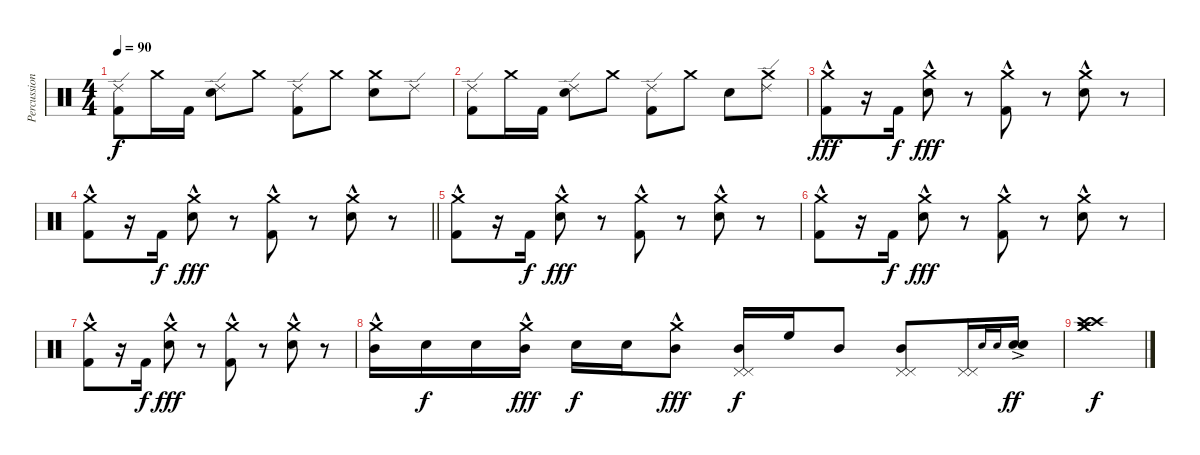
\track ("Percussion" "Percussion") {instrument percussion}
\staff {score}
\articulation defaults
\ts (4 4)
\tempo 90
\clef neutral
\ks c
("Ride (edge) 2" "Kick (hit) 2").8{dy f} "Crash medium (hit)".16 "Kick (hit) 2".16 ("Ride (edge) 2" "Electric Snare (hit)").8 "Crash medium (hit)".8 ("Ride (edge) 2" "Kick (hit) 2").8 "Crash medium (hit)".8 ("Crash medium (hit)" "Electric Snare (hit)").8 "Ride (edge) 2".8 |
("Ride (edge) 2" "Kick (hit) 2").8 "Crash medium (hit)".16 "Kick (hit) 2".16 ("Ride (edge) 2" "Electric Snare (hit)").8 "Crash medium (hit)".8 ("Ride (edge) 2" "Kick (hit) 2").8 "Crash medium (hit)".8 "Electric Snare (hit)".8 ("Ride (edge) 2" "Crash medium (hit)").8 |
("Crash medium (hit)"{hac} "Kick (hit) 2").8{dy fff} r.16 "Kick (hit) 2".16{dy f} ("Crash medium (hit)"{hac} "Electric Snare (hit)").8{dy fff} r.8 ("Crash medium (hit)"{hac} "Kick (hit) 2").8 r.8 ("Crash medium (hit)"{hac} "Electric Snare (hit)").8 r.8 |
\barLineRight lightlight
("Crash medium (hit)"{hac} "Kick (hit) 2").8 r.16 "Kick (hit) 2".16{dy f} ("Crash medium (hit)"{hac} "Electric Snare (hit)").8{dy fff} r.8 ("Crash medium (hit)"{hac} "Kick (hit) 2").8 r.8 ("Crash medium (hit)"{hac} "Electric Snare (hit)").8 r.8 |
("Crash medium (hit)"{hac} "Kick (hit) 2").8 r.16 "Kick (hit) 2".16{dy f} ("Crash medium (hit)"{hac} "Electric Snare (hit)").8{dy fff} r.8 ("Crash medium (hit)"{hac} "Kick (hit) 2").8 r.8 ("Crash medium (hit)"{hac} "Electric Snare (hit)").8 r.8 |
("Crash medium (hit)"{hac} "Kick (hit) 2").8 r.16 "Kick (hit) 2".16{dy f} ("Crash medium (hit)"{hac} "Electric Snare (hit)").8{dy fff} r.8 ("Crash medium (hit)"{hac} "Kick (hit) 2").8 r.8 ("Crash medium (hit)"{hac} "Electric Snare (hit)").8 r.8 |
("Crash medium (hit)"{hac} "Kick (hit) 2").8 r.16 "Kick (hit) 2".16{dy f} ("Crash medium (hit)"{hac} "Electric Snare (hit)").8{dy fff} r.8 ("Crash medium (hit)"{hac} "Kick (hit) 2").8 r.8 ("Crash medium (hit)"{hac} "Electric Snare (hit)").8 r.8 |
("Crash medium (hit)"{hac} "Mid Tom (hit)").16 "Electric Snare (hit)".16{dy f} "Electric Snare (hit)".16 ("Crash medium (hit)"{hac} "Mid Tom (hit)").16{dy fff} "Electric Snare (hit)".16{dy f} "Electric Snare (hit)".16 ("Crash medium (hit)"{hac} "Mid Tom (hit)").8{dy fff} ("Pedal Hi-Hat (hit)" "Pedal Hi-Hat (hit)" "Mid Tom (hit)").16{dy f} "High Floor Tom (hit)".16 "Mid Tom (hit)".8 ("Pedal Hi-Hat (hit)" "Pedal Hi-Hat (hit)" "Mid Tom (hit)").8 ("Pedal Hi-Hat (hit)" "Pedal Hi-Hat (hit)").16 "Electric Snare (hit)".16{gr onbeat} "Electric Snare (hit)".16{gr onbeat} ("Electric Snare (hit)"{ac} "Electric Snare (hit)"{ac}).16{dy ff} |
("Crash high (hit)" "Crash high (hit)" "Crash medium (hit)" "Crash medium (hit)").1{dy f}
